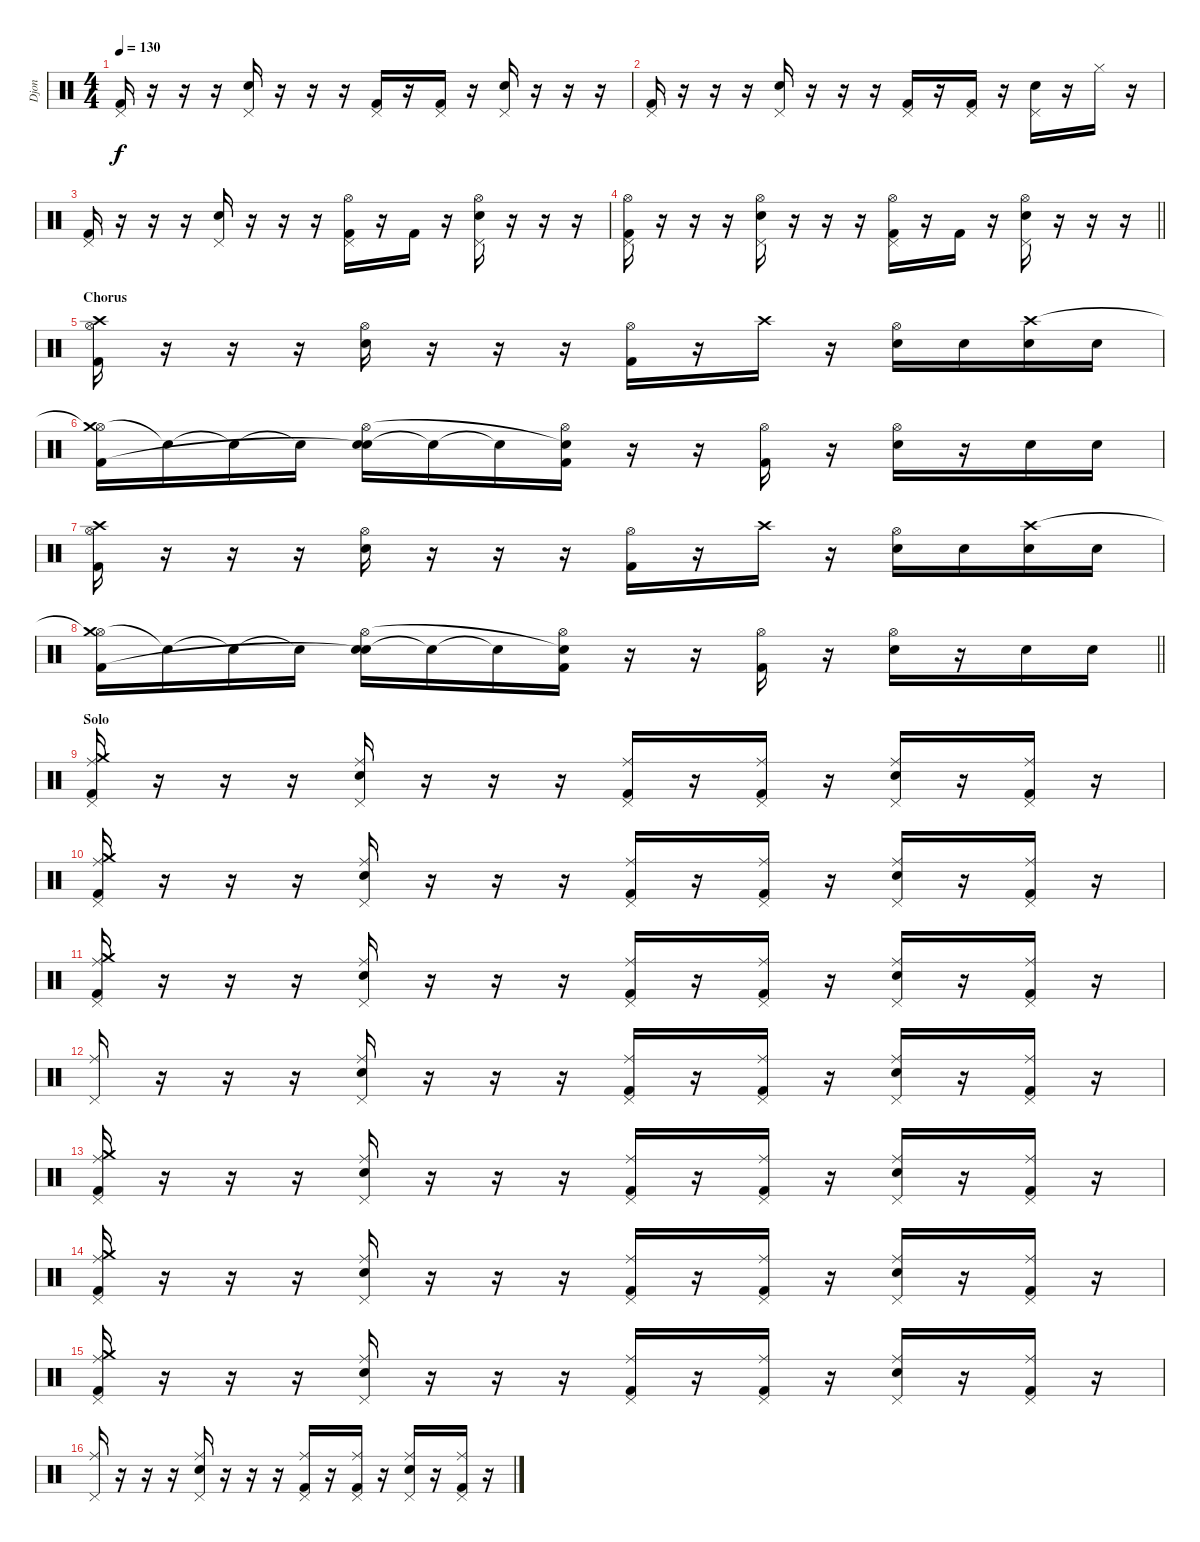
\track ("Djon" "Djon") {instrument percussion}
\staff {score}
\articulation defaults
\ts (4 4)
\tempo 130
\clef neutral
\ks c
("Pedal Hi-Hat (hit)" "Kick (hit) 2").16{dy f} r.16 r.16 r.16 ("Pedal Hi-Hat (hit)" "Snare (hit) 2").16 r.16 r.16 r.16 ("Pedal Hi-Hat (hit)" "Kick (hit) 2").16 r.16 ("Pedal Hi-Hat (hit)" "Kick (hit) 2").16 r.16 ("Pedal Hi-Hat (hit)" "Snare (hit) 2").16 r.16 r.16 r.16 |
("Pedal Hi-Hat (hit)" "Kick (hit) 2").16 r.16 r.16 r.16 ("Pedal Hi-Hat (hit)" "Snare (hit) 2").16 r.16 r.16 r.16 ("Pedal Hi-Hat (hit)" "Kick (hit) 2").16 r.16 ("Pedal Hi-Hat (hit)" "Kick (hit) 2").16 r.16 ("Pedal Hi-Hat (hit)" "Snare (hit) 2").16 r.16 "Hi-Hat (closed)".16 r.16 |
("Pedal Hi-Hat (hit)" "Kick (hit) 2").16 r.16 r.16 r.16 ("Pedal Hi-Hat (hit)" "Snare (hit) 2").16 r.16 r.16 r.16 ("Pedal Hi-Hat (hit)" "Hi-Hat (open)" "Kick (hit) 2").16 r.16 "Kick (hit) 2".16 r.16 ("Pedal Hi-Hat (hit)" "Hi-Hat (open)" "Snare (hit) 2").16 r.16 r.16 r.16 |
\barLineRight lightlight
("Pedal Hi-Hat (hit)" "Hi-Hat (open)" "Kick (hit) 2").16 r.16 r.16 r.16 ("Pedal Hi-Hat (hit)" "Hi-Hat (open)" "Snare (hit) 2").16 r.16 r.16 r.16 ("Pedal Hi-Hat (hit)" "Hi-Hat (open)" "Kick (hit) 2").16 r.16 "Kick (hit) 2".16 r.16 ("Pedal Hi-Hat (hit)" "Hi-Hat (open)" "Snare (hit) 2").16 r.16 r.16 r.16 |
\section ("" "Chorus")
("Hi-Hat (open)" "Crash high (hit)" "Kick (hit) 2").16 r.16 r.16 r.16 ("Hi-Hat (open)" "Snare (hit) 2").16 r.16 r.16 r.16 ("Hi-Hat (open)" "Kick (hit) 2").16 r.16 "Crash high (hit)".16 r.16 ("Hi-Hat (open)" "Snare (hit) 2").16 "Snare (hit) 2".16 ("Snare (hit) 2" "Crash high (hit)").16 "Snare (hit) 2".16 |
("Hi-Hat (open)" "Crash medium (hit)"{t} "Kick (hit) 2").16 "Snare (hit)"{t}.16 "Snare (hit)"{t}.16 "Snare (hit)"{t}.16 ("Snare (hit) 2" "Hi-Hat (open)" "Snare (hit)"{t}).16 "Snare (hit)"{t}.16 "Snare (hit)"{t}.16 ("Hi-Hat (open)" "Snare (hit)"{t} "Kick (hit) 2").16 r.16 r.16 ("Hi-Hat (open)" "Kick (hit) 2").16 r.16 ("Snare (hit) 2" "Hi-Hat (open)").16 r.16 "Snare (hit) 2".16 "Snare (hit) 2".16 |
("Hi-Hat (open)" "Crash high (hit)" "Kick (hit) 2").16 r.16 r.16 r.16 ("Hi-Hat (open)" "Snare (hit) 2").16 r.16 r.16 r.16 ("Hi-Hat (open)" "Kick (hit) 2").16 r.16 "Crash high (hit)".16 r.16 ("Hi-Hat (open)" "Snare (hit) 2").16 "Snare (hit) 2".16 ("Snare (hit) 2" "Crash high (hit)").16 "Snare (hit) 2".16 |
\barLineRight lightlight
("Hi-Hat (open)" "Crash medium (hit)"{t} "Kick (hit) 2").16 "Snare (hit)"{t}.16 "Snare (hit)"{t}.16 "Snare (hit)"{t}.16 ("Snare (hit) 2" "Hi-Hat (open)" "Snare (hit)"{t}).16 "Snare (hit)"{t}.16 "Snare (hit)"{t}.16 ("Hi-Hat (open)" "Snare (hit)"{t} "Kick (hit) 2").16 r.16 r.16 ("Hi-Hat (open)" "Kick (hit) 2").16 r.16 ("Snare (hit) 2" "Hi-Hat (open)").16 r.16 "Snare (hit) 2".16 "Snare (hit) 2".16 |
\section ("" "Solo")
("Pedal Hi-Hat (hit)" "Ride (middle)" "Crash medium (hit)" "Kick (hit) 2").16 r.16 r.16 r.16 ("Pedal Hi-Hat (hit)" "Ride (middle)" "Snare (hit) 2").16 r.16 r.16 r.16 ("Pedal Hi-Hat (hit)" "Ride (middle)" "Kick (hit) 2").16 r.16 ("Pedal Hi-Hat (hit)" "Ride (middle)" "Kick (hit) 2").16 r.16 ("Pedal Hi-Hat (hit)" "Ride (middle)" "Snare (hit) 2").16 r.16 ("Pedal Hi-Hat (hit)" "Ride (middle)" "Kick (hit) 2").16 r.16 |
("Pedal Hi-Hat (hit)" "Ride (middle)" "Crash medium (hit)" "Kick (hit) 2").16 r.16 r.16 r.16 ("Pedal Hi-Hat (hit)" "Ride (middle)" "Snare (hit) 2").16 r.16 r.16 r.16 ("Pedal Hi-Hat (hit)" "Ride (middle)" "Kick (hit) 2").16 r.16 ("Pedal Hi-Hat (hit)" "Ride (middle)" "Kick (hit) 2").16 r.16 ("Pedal Hi-Hat (hit)" "Ride (middle)" "Snare (hit) 2").16 r.16 ("Pedal Hi-Hat (hit)" "Ride (middle)" "Kick (hit) 2").16 r.16 |
("Pedal Hi-Hat (hit)" "Ride (middle)" "Crash medium (hit)" "Kick (hit) 2").16 r.16 r.16 r.16 ("Pedal Hi-Hat (hit)" "Ride (middle)" "Snare (hit) 2").16 r.16 r.16 r.16 ("Pedal Hi-Hat (hit)" "Ride (middle)" "Kick (hit) 2").16 r.16 ("Pedal Hi-Hat (hit)" "Ride (middle)" "Kick (hit) 2").16 r.16 ("Pedal Hi-Hat (hit)" "Ride (middle)" "Snare (hit) 2").16 r.16 ("Pedal Hi-Hat (hit)" "Ride (middle)" "Kick (hit) 2").16 r.16 |
("Pedal Hi-Hat (hit)" "Ride (middle)").16 r.16 r.16 r.16 ("Pedal Hi-Hat (hit)" "Ride (middle)" "Snare (hit) 2").16 r.16 r.16 r.16 ("Pedal Hi-Hat (hit)" "Ride (middle)" "Kick (hit) 2").16 r.16 ("Pedal Hi-Hat (hit)" "Ride (middle)" "Kick (hit) 2").16 r.16 ("Pedal Hi-Hat (hit)" "Ride (middle)" "Snare (hit) 2").16 r.16 ("Pedal Hi-Hat (hit)" "Ride (middle)" "Kick (hit) 2").16 r.16 |
("Pedal Hi-Hat (hit)" "Ride (middle)" "Crash medium (hit)" "Kick (hit) 2").16 r.16 r.16 r.16 ("Pedal Hi-Hat (hit)" "Ride (middle)" "Snare (hit) 2").16 r.16 r.16 r.16 ("Pedal Hi-Hat (hit)" "Ride (middle)" "Kick (hit) 2").16 r.16 ("Pedal Hi-Hat (hit)" "Ride (middle)" "Kick (hit) 2").16 r.16 ("Pedal Hi-Hat (hit)" "Ride (middle)" "Snare (hit) 2").16 r.16 ("Pedal Hi-Hat (hit)" "Ride (middle)" "Kick (hit) 2").16 r.16 |
("Pedal Hi-Hat (hit)" "Ride (middle)" "Crash medium (hit)" "Kick (hit) 2").16 r.16 r.16 r.16 ("Pedal Hi-Hat (hit)" "Ride (middle)" "Snare (hit) 2").16 r.16 r.16 r.16 ("Pedal Hi-Hat (hit)" "Ride (middle)" "Kick (hit) 2").16 r.16 ("Pedal Hi-Hat (hit)" "Ride (middle)" "Kick (hit) 2").16 r.16 ("Pedal Hi-Hat (hit)" "Ride (middle)" "Snare (hit) 2").16 r.16 ("Pedal Hi-Hat (hit)" "Ride (middle)" "Kick (hit) 2").16 r.16 |
("Pedal Hi-Hat (hit)" "Ride (middle)" "Crash medium (hit)" "Kick (hit) 2").16 r.16 r.16 r.16 ("Pedal Hi-Hat (hit)" "Ride (middle)" "Snare (hit) 2").16 r.16 r.16 r.16 ("Pedal Hi-Hat (hit)" "Ride (middle)" "Kick (hit) 2").16 r.16 ("Pedal Hi-Hat (hit)" "Ride (middle)" "Kick (hit) 2").16 r.16 ("Pedal Hi-Hat (hit)" "Ride (middle)" "Snare (hit) 2").16 r.16 ("Pedal Hi-Hat (hit)" "Ride (middle)" "Kick (hit) 2").16 r.16 |
("Pedal Hi-Hat (hit)" "Ride (middle)").16 r.16 r.16 r.16 ("Pedal Hi-Hat (hit)" "Ride (middle)" "Snare (hit) 2").16 r.16 r.16 r.16 ("Pedal Hi-Hat (hit)" "Ride (middle)" "Kick (hit) 2").16 r.16 ("Pedal Hi-Hat (hit)" "Ride (middle)" "Kick (hit) 2").16 r.16 ("Pedal Hi-Hat (hit)" "Ride (middle)" "Snare (hit) 2").16 r.16 ("Pedal Hi-Hat (hit)" "Ride (middle)" "Kick (hit) 2").16 r.16
